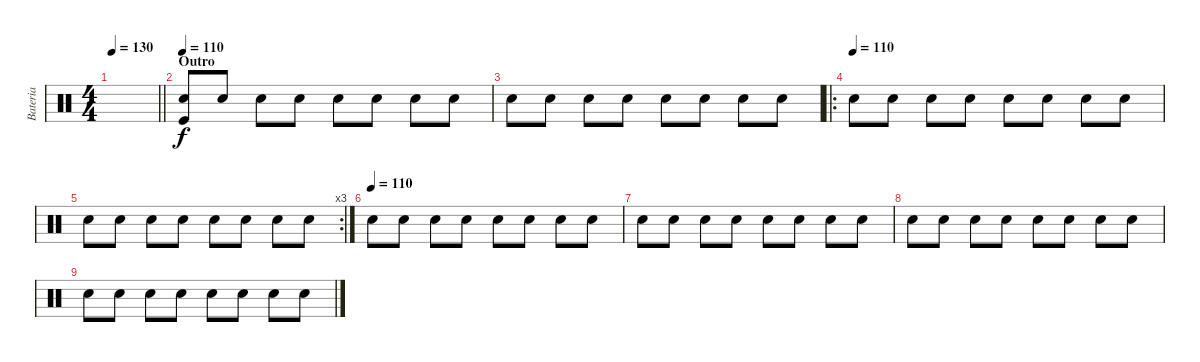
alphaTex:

\track ("Bateria" "Bateria") {instrument percussion}
\staff {score}
\articulation defaults
\ts (4 4)
\tempo 130
\clef neutral
\barLineRight lightlight
\ks c
|
\section ("" "Outro")
\tempo 110
("Snare (hit) 2" "Kick (hit)").8{dy f} "Snare (hit) 2".8 "Snare (hit) 2".8 "Snare (hit) 2".8 "Snare (hit) 2".8 "Snare (hit) 2".8 "Snare (hit) 2".8 "Snare (hit) 2".8 |
"Snare (hit) 2".8 "Snare (hit) 2".8 "Snare (hit) 2".8 "Snare (hit) 2".8 "Snare (hit) 2".8 "Snare (hit) 2".8 "Snare (hit) 2".8 "Snare (hit) 2".8 |
\ro
\tempo (110)
"Snare (hit) 2".8 "Snare (hit) 2".8 "Snare (hit) 2".8 "Snare (hit) 2".8 "Snare (hit) 2".8 "Snare (hit) 2".8 "Snare (hit) 2".8 "Snare (hit) 2".8 |
\rc 3 "Snare (hit) 2".8 "Snare (hit) 2".8 "Snare (hit) 2".8 "Snare (hit) 2".8 "Snare (hit) 2".8 "Snare (hit) 2".8 "Snare (hit) 2".8 "Snare (hit) 2".8
|
\tempo (110)
"Snare (hit) 2".8 "Snare (hit) 2".8 "Snare (hit) 2".8 "Snare (hit) 2".8 "Snare (hit) 2".8 "Snare (hit) 2".8 "Snare (hit) 2".8 "Snare (hit) 2".8 |
"Snare (hit) 2".8 "Snare (hit) 2".8 "Snare (hit) 2".8 "Snare (hit) 2".8 "Snare (hit) 2".8 "Snare (hit) 2".8 "Snare (hit) 2".8 "Snare (hit) 2".8 |
"Snare (hit) 2".8 "Snare (hit) 2".8 "Snare (hit) 2".8 "Snare (hit) 2".8 "Snare (hit) 2".8 "Snare (hit) 2".8 "Snare (hit) 2".8 "Snare (hit) 2".8 |
"Snare (hit) 2".8 "Snare (hit) 2".8 "Snare (hit) 2".8 "Snare (hit) 2".8 "Snare (hit) 2".8 "Snare (hit) 2".8 "Snare (hit) 2".8 "Snare (hit) 2".8
